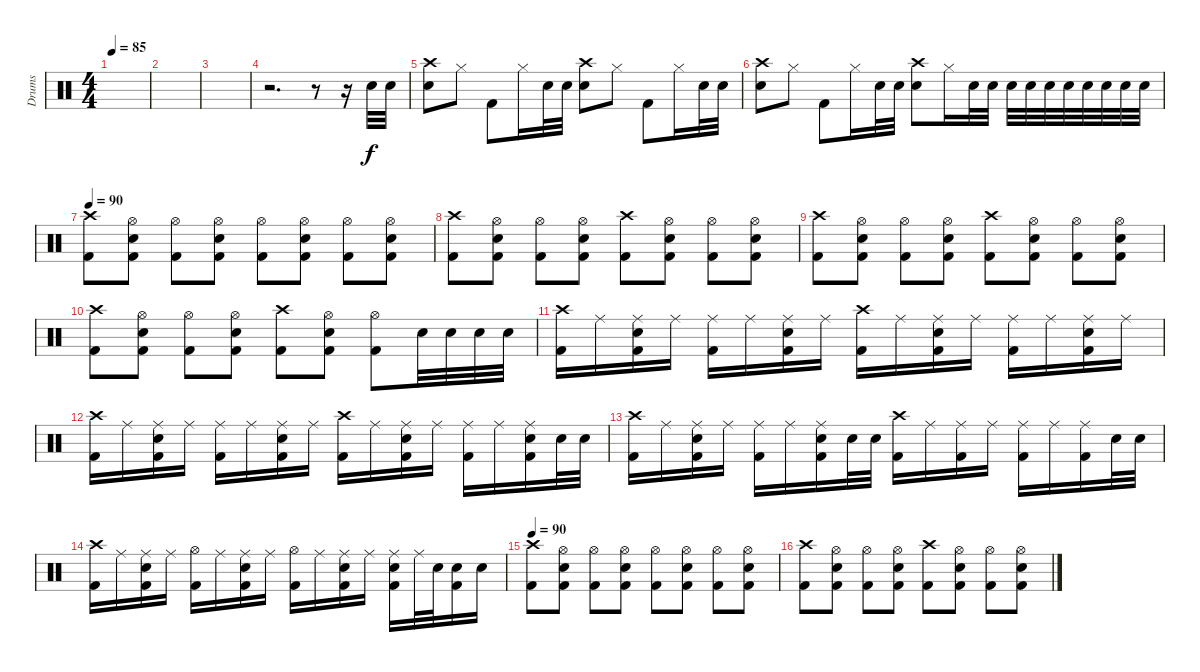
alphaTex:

\track ("Drums" "Drums") {instrument percussion}
\staff {score}
\articulation defaults
\ts (4 4)
\tempo 85
\clef neutral
\ks c
|
|
|
r.2{d} r.8 r.16 "Electric Snare (hit)".32 "Electric Snare (hit)".32 |
("Crash high (hit)" "Electric Snare (hit)").8 "Hi-Hat (closed)".8 "Kick (hit) 2".8 "Hi-Hat (closed)".16 "Electric Snare (hit)".32 "Electric Snare (hit)".32 ("Crash high (hit)" "Electric Snare (hit)").8 "Hi-Hat (closed)".8 "Kick (hit) 2".8 "Hi-Hat (closed)".16 "Electric Snare (hit)".32 "Electric Snare (hit)".32 |
("Crash high (hit)" "Electric Snare (hit)").8 "Hi-Hat (closed)".8 "Kick (hit) 2".8 "Hi-Hat (closed)".16 "Electric Snare (hit)".32 "Electric Snare (hit)".32 ("Crash high (hit)" "Electric Snare (hit)").8 "Hi-Hat (closed)".16 "Electric Snare (hit)".32 "Electric Snare (hit)".32 "Electric Snare (hit)".32 "Electric Snare (hit)".32 "Electric Snare (hit)".32 "Electric Snare (hit)".32 "Electric Snare (hit)".32 "Electric Snare (hit)".32 "Electric Snare (hit)".32 "Electric Snare (hit)".32 |
\tempo 90
("Crash high (hit)" "Kick (hit) 2").8 ("Hi-Hat (open)" "Electric Snare (hit)" "Kick (hit) 2").8 ("Hi-Hat (open)" "Kick (hit) 2").8 ("Hi-Hat (open)" "Electric Snare (hit)" "Kick (hit) 2").8 ("Hi-Hat (open)" "Kick (hit) 2").8 ("Hi-Hat (open)" "Electric Snare (hit)" "Kick (hit) 2").8 ("Hi-Hat (open)" "Kick (hit) 2").8 ("Hi-Hat (open)" "Electric Snare (hit)" "Kick (hit) 2").8 |
("Crash high (hit)" "Kick (hit) 2").8 ("Hi-Hat (open)" "Electric Snare (hit)" "Kick (hit) 2").8 ("Hi-Hat (open)" "Kick (hit) 2").8 ("Hi-Hat (open)" "Electric Snare (hit)" "Kick (hit) 2").8 ("Crash high (hit)" "Kick (hit) 2").8 ("Hi-Hat (open)" "Electric Snare (hit)" "Kick (hit) 2").8 ("Hi-Hat (open)" "Kick (hit) 2").8 ("Hi-Hat (open)" "Electric Snare (hit)" "Kick (hit) 2").8 |
("Crash high (hit)" "Kick (hit) 2").8 ("Hi-Hat (open)" "Electric Snare (hit)" "Kick (hit) 2").8 ("Hi-Hat (open)" "Kick (hit) 2").8 ("Hi-Hat (open)" "Electric Snare (hit)" "Kick (hit) 2").8 ("Crash high (hit)" "Kick (hit) 2").8 ("Hi-Hat (open)" "Electric Snare (hit)" "Kick (hit) 2").8 ("Hi-Hat (open)" "Kick (hit) 2").8 ("Hi-Hat (open)" "Electric Snare (hit)" "Kick (hit) 2").8 |
("Crash high (hit)" "Kick (hit) 2").8 ("Hi-Hat (open)" "Electric Snare (hit)" "Kick (hit) 2").8 ("Hi-Hat (open)" "Kick (hit) 2").8 ("Hi-Hat (open)" "Electric Snare (hit)" "Kick (hit) 2").8 ("Crash high (hit)" "Kick (hit) 2").8 ("Hi-Hat (open)" "Electric Snare (hit)" "Kick (hit) 2").8 ("Hi-Hat (open)" "Kick (hit) 2").8 "Electric Snare (hit)".32 "Electric Snare (hit)".32 "Electric Snare (hit)".32 "Electric Snare (hit)".32 |
("Crash high (hit)" "Kick (hit) 2").16 "Ride (middle)".16 ("Ride (middle)" "Electric Snare (hit)" "Kick (hit) 2").16 "Ride (middle)".16 ("Ride (middle)" "Kick (hit) 2").16 "Ride (middle)".16 ("Ride (middle)" "Electric Snare (hit)" "Kick (hit) 2").16 "Ride (middle)".16 ("Crash high (hit)" "Kick (hit) 2").16 "Ride (middle)".16 ("Ride (middle)" "Electric Snare (hit)" "Kick (hit) 2").16 "Ride (middle)".16 ("Ride (middle)" "Kick (hit) 2").16 "Ride (middle)".16 ("Ride (middle)" "Electric Snare (hit)" "Kick (hit) 2").16 "Ride (middle)".16 |
("Crash high (hit)" "Kick (hit) 2").16 "Ride (middle)".16 ("Ride (middle)" "Electric Snare (hit)" "Kick (hit) 2").16 "Ride (middle)".16 ("Ride (middle)" "Kick (hit) 2").16 "Ride (middle)".16 ("Ride (middle)" "Electric Snare (hit)" "Kick (hit) 2").16 "Ride (middle)".16 ("Crash high (hit)" "Kick (hit) 2").16 "Ride (middle)".16 ("Ride (middle)" "Electric Snare (hit)" "Kick (hit) 2").16 "Ride (middle)".16 ("Ride (middle)" "Kick (hit) 2").16 "Ride (middle)".16 ("Ride (middle)" "Electric Snare (hit)" "Kick (hit) 2").16 "Electric Snare (hit)".32 "Electric Snare (hit)".32 |
("Crash high (hit)" "Kick (hit) 2").16 "Ride (middle)".16 ("Ride (middle)" "Electric Snare (hit)" "Kick (hit) 2").16 "Ride (middle)".16 ("Ride (middle)" "Kick (hit) 2").16 "Ride (middle)".16 ("Ride (middle)" "Electric Snare (hit)" "Kick (hit) 2").16 "Electric Snare (hit)".32 "Electric Snare (hit)".32 ("Crash high (hit)" "Kick (hit) 2").16 "Ride (middle)".16 ("Ride (middle)" "Kick (hit) 2").16 "Ride (middle)".16 ("Ride (middle)" "Kick (hit) 2").16 "Ride (middle)".16 ("Ride (middle)" "Kick (hit) 2").16 "Electric Snare (hit)".32 "Electric Snare (hit)".32 |
("Crash high (hit)" "Kick (hit) 2").16 "Ride (middle)".16 ("Ride (middle)" "Electric Snare (hit)" "Kick (hit) 2").16 "Ride (middle)".16 ("Hi-Hat (open)" "Kick (hit) 2").16 "Ride (middle)".16 ("Ride (middle)" "Electric Snare (hit)" "Kick (hit) 2").16 "Ride (middle)".16 ("Hi-Hat (open)" "Kick (hit) 2").16 "Ride (middle)".16 ("Ride (middle)" "Electric Snare (hit)" "Kick (hit) 2").16 "Ride (middle)".16 ("Ride (middle)" "Electric Snare (hit)" "Kick (hit) 2").16 "Ride (middle)".32 "Electric Snare (hit)".32 ("Electric Snare (hit)" "Kick (hit) 2").16 "Electric Snare (hit)".16 |
\tempo 90
("Crash high (hit)" "Kick (hit) 2").8 ("Hi-Hat (open)" "Electric Snare (hit)" "Kick (hit) 2").8 ("Hi-Hat (open)" "Kick (hit) 2").8 ("Hi-Hat (open)" "Electric Snare (hit)" "Kick (hit) 2").8 ("Hi-Hat (open)" "Kick (hit) 2").8 ("Hi-Hat (open)" "Electric Snare (hit)" "Kick (hit) 2").8 ("Hi-Hat (open)" "Kick (hit) 2").8 ("Hi-Hat (open)" "Electric Snare (hit)" "Kick (hit) 2").8 |
("Crash high (hit)" "Kick (hit) 2").8 ("Hi-Hat (open)" "Electric Snare (hit)" "Kick (hit) 2").8 ("Hi-Hat (open)" "Kick (hit) 2").8 ("Hi-Hat (open)" "Electric Snare (hit)" "Kick (hit) 2").8 ("Crash high (hit)" "Kick (hit) 2").8 ("Hi-Hat (open)" "Electric Snare (hit)" "Kick (hit) 2").8 ("Hi-Hat (open)" "Kick (hit) 2").8 ("Hi-Hat (open)" "Electric Snare (hit)" "Kick (hit) 2").8
